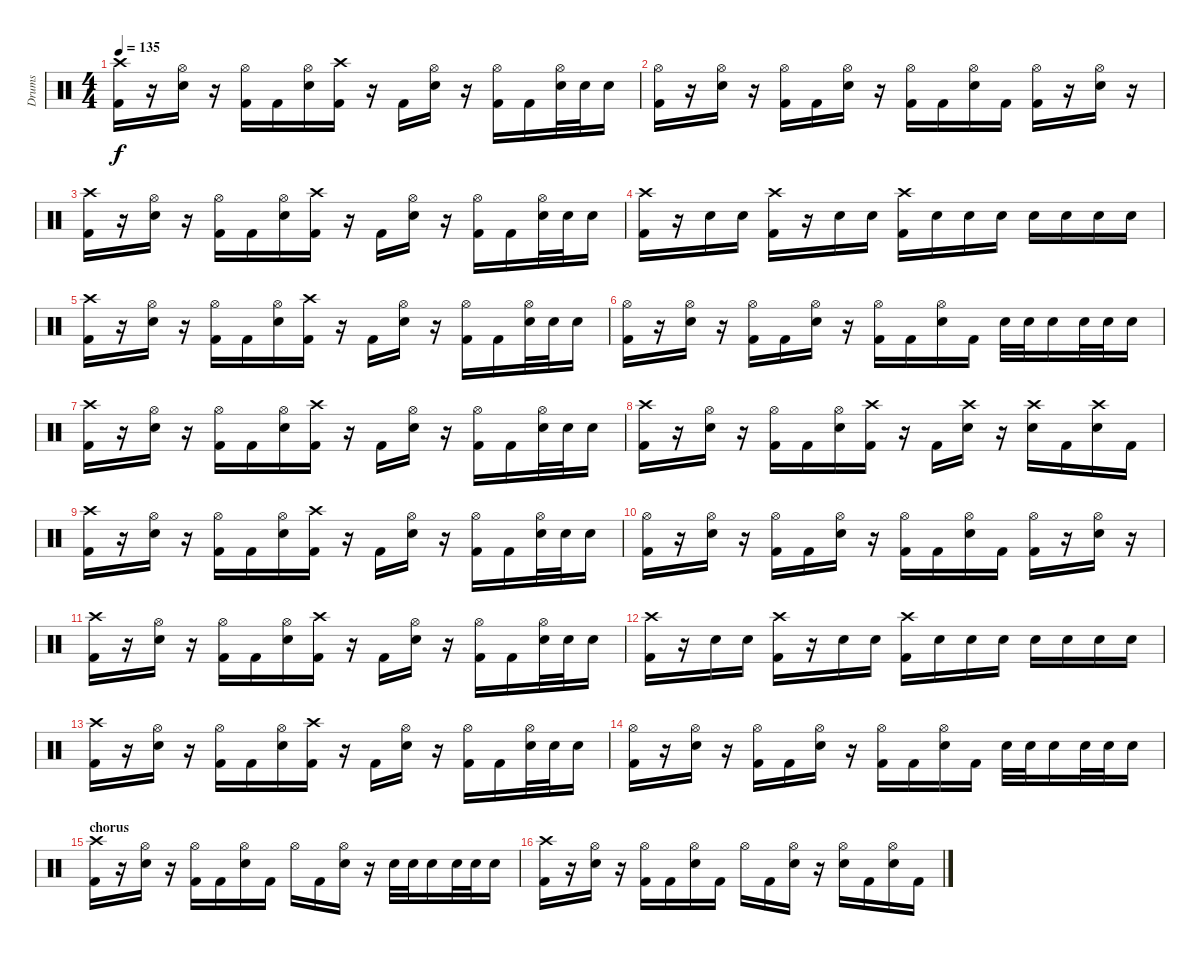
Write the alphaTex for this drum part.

\track ("Drums" "Drums") {instrument percussion}
\staff {score}
\articulation defaults
\ts (4 4)
\tempo 135
\clef neutral
\ks c
("Crash high (hit)" "Kick (hit) 2").16{dy f} r.16 ("Hi-Hat (open)" "Electric Snare (hit)").16 r.16 ("Hi-Hat (open)" "Kick (hit) 2").16 "Kick (hit) 2".16 ("Hi-Hat (open)" "Electric Snare (hit)").16 ("Crash high (hit)" "Kick (hit) 2").16 r.16 "Kick (hit) 2".16 ("Hi-Hat (open)" "Electric Snare (hit)").16 r.16 ("Hi-Hat (open)" "Kick (hit) 2").16 "Kick (hit) 2".16 ("Hi-Hat (open)" "Electric Snare (hit)").32 "Electric Snare (hit)".32 "Electric Snare (hit)".16 |
("Hi-Hat (open)" "Kick (hit) 2").16 r.16 ("Hi-Hat (open)" "Electric Snare (hit)").16 r.16 ("Hi-Hat (open)" "Kick (hit) 2").16 "Kick (hit) 2".16 ("Hi-Hat (open)" "Electric Snare (hit)").16 r.16 ("Hi-Hat (open)" "Kick (hit) 2").16 "Kick (hit) 2".16 ("Hi-Hat (open)" "Electric Snare (hit)").16 "Kick (hit) 2".16 ("Hi-Hat (open)" "Kick (hit) 2").16 r.16 ("Hi-Hat (open)" "Electric Snare (hit)").16 r.16 |
("Crash high (hit)" "Kick (hit) 2").16 r.16 ("Hi-Hat (open)" "Electric Snare (hit)").16 r.16 ("Hi-Hat (open)" "Kick (hit) 2").16 "Kick (hit) 2".16 ("Hi-Hat (open)" "Electric Snare (hit)").16 ("Crash high (hit)" "Kick (hit) 2").16 r.16 "Kick (hit) 2".16 ("Hi-Hat (open)" "Electric Snare (hit)").16 r.16 ("Hi-Hat (open)" "Kick (hit) 2").16 "Kick (hit) 2".16 ("Hi-Hat (open)" "Electric Snare (hit)").32 "Electric Snare (hit)".32 "Electric Snare (hit)".16 |
("Crash high (hit)" "Kick (hit) 2").16 r.16 "Electric Snare (hit)".16 "Electric Snare (hit)".16 ("Crash high (hit)" "Kick (hit) 2").16 r.16 "Electric Snare (hit)".16 "Electric Snare (hit)".16 ("Crash high (hit)" "Kick (hit) 2").16 "Electric Snare (hit)".16 "Electric Snare (hit)".16 "Electric Snare (hit)".16 "Electric Snare (hit)".16 "Electric Snare (hit)".16 "Electric Snare (hit)".16 "Electric Snare (hit)".16 |
("Crash high (hit)" "Kick (hit) 2").16 r.16 ("Hi-Hat (open)" "Electric Snare (hit)").16 r.16 ("Hi-Hat (open)" "Kick (hit) 2").16 "Kick (hit) 2".16 ("Hi-Hat (open)" "Electric Snare (hit)").16 ("Crash high (hit)" "Kick (hit) 2").16 r.16 "Kick (hit) 2".16 ("Hi-Hat (open)" "Electric Snare (hit)").16 r.16 ("Hi-Hat (open)" "Kick (hit) 2").16 "Kick (hit) 2".16 ("Hi-Hat (open)" "Electric Snare (hit)").32 "Electric Snare (hit)".32 "Electric Snare (hit)".16 |
("Hi-Hat (open)" "Kick (hit) 2").16 r.16 ("Hi-Hat (open)" "Electric Snare (hit)").16 r.16 ("Hi-Hat (open)" "Kick (hit) 2").16 "Kick (hit) 2".16 ("Hi-Hat (open)" "Electric Snare (hit)").16 r.16 ("Hi-Hat (open)" "Kick (hit) 2").16 "Kick (hit) 2".16 ("Hi-Hat (open)" "Electric Snare (hit)").16 "Kick (hit) 2".16 "Electric Snare (hit)".32 "Electric Snare (hit)".32 "Electric Snare (hit)".16 "Electric Snare (hit)".32 "Electric Snare (hit)".32 "Electric Snare (hit)".16 |
("Crash high (hit)" "Kick (hit) 2").16 r.16 ("Hi-Hat (open)" "Electric Snare (hit)").16 r.16 ("Hi-Hat (open)" "Kick (hit) 2").16 "Kick (hit) 2".16 ("Hi-Hat (open)" "Electric Snare (hit)").16 ("Crash high (hit)" "Kick (hit) 2").16 r.16 "Kick (hit) 2".16 ("Hi-Hat (open)" "Electric Snare (hit)").16 r.16 ("Hi-Hat (open)" "Kick (hit) 2").16 "Kick (hit) 2".16 ("Hi-Hat (open)" "Electric Snare (hit)").32 "Electric Snare (hit)".32 "Electric Snare (hit)".16 |
("Crash high (hit)" "Kick (hit) 2").16 r.16 ("Hi-Hat (open)" "Electric Snare (hit)").16 r.16 ("Hi-Hat (open)" "Kick (hit) 2").16 "Kick (hit) 2".16 ("Hi-Hat (open)" "Electric Snare (hit)").16 ("Crash high (hit)" "Kick (hit) 2").16 r.16 "Kick (hit) 2".16 ("Crash high (hit)" "Electric Snare (hit)").16 r.16 ("Crash high (hit)" "Electric Snare (hit)").16 "Kick (hit) 2".16 ("Crash high (hit)" "Electric Snare (hit)").16 "Kick (hit) 2".16 |
("Crash high (hit)" "Kick (hit) 2").16 r.16 ("Hi-Hat (open)" "Electric Snare (hit)").16 r.16 ("Hi-Hat (open)" "Kick (hit) 2").16 "Kick (hit) 2".16 ("Hi-Hat (open)" "Electric Snare (hit)").16 ("Crash high (hit)" "Kick (hit) 2").16 r.16 "Kick (hit) 2".16 ("Hi-Hat (open)" "Electric Snare (hit)").16 r.16 ("Hi-Hat (open)" "Kick (hit) 2").16 "Kick (hit) 2".16 ("Hi-Hat (open)" "Electric Snare (hit)").32 "Electric Snare (hit)".32 "Electric Snare (hit)".16 |
("Hi-Hat (open)" "Kick (hit) 2").16 r.16 ("Hi-Hat (open)" "Electric Snare (hit)").16 r.16 ("Hi-Hat (open)" "Kick (hit) 2").16 "Kick (hit) 2".16 ("Hi-Hat (open)" "Electric Snare (hit)").16 r.16 ("Hi-Hat (open)" "Kick (hit) 2").16 "Kick (hit) 2".16 ("Hi-Hat (open)" "Electric Snare (hit)").16 "Kick (hit) 2".16 ("Hi-Hat (open)" "Kick (hit) 2").16 r.16 ("Hi-Hat (open)" "Electric Snare (hit)").16 r.16 |
("Crash high (hit)" "Kick (hit) 2").16 r.16 ("Hi-Hat (open)" "Electric Snare (hit)").16 r.16 ("Hi-Hat (open)" "Kick (hit) 2").16 "Kick (hit) 2".16 ("Hi-Hat (open)" "Electric Snare (hit)").16 ("Crash high (hit)" "Kick (hit) 2").16 r.16 "Kick (hit) 2".16 ("Hi-Hat (open)" "Electric Snare (hit)").16 r.16 ("Hi-Hat (open)" "Kick (hit) 2").16 "Kick (hit) 2".16 ("Hi-Hat (open)" "Electric Snare (hit)").32 "Electric Snare (hit)".32 "Electric Snare (hit)".16 |
("Crash high (hit)" "Kick (hit) 2").16 r.16 "Electric Snare (hit)".16 "Electric Snare (hit)".16 ("Crash high (hit)" "Kick (hit) 2").16 r.16 "Electric Snare (hit)".16 "Electric Snare (hit)".16 ("Crash high (hit)" "Kick (hit) 2").16 "Electric Snare (hit)".16 "Electric Snare (hit)".16 "Electric Snare (hit)".16 "Electric Snare (hit)".16 "Electric Snare (hit)".16 "Electric Snare (hit)".16 "Electric Snare (hit)".16 |
("Crash high (hit)" "Kick (hit) 2").16 r.16 ("Hi-Hat (open)" "Electric Snare (hit)").16 r.16 ("Hi-Hat (open)" "Kick (hit) 2").16 "Kick (hit) 2".16 ("Hi-Hat (open)" "Electric Snare (hit)").16 ("Crash high (hit)" "Kick (hit) 2").16 r.16 "Kick (hit) 2".16 ("Hi-Hat (open)" "Electric Snare (hit)").16 r.16 ("Hi-Hat (open)" "Kick (hit) 2").16 "Kick (hit) 2".16 ("Hi-Hat (open)" "Electric Snare (hit)").32 "Electric Snare (hit)".32 "Electric Snare (hit)".16 |
("Hi-Hat (open)" "Kick (hit) 2").16 r.16 ("Hi-Hat (open)" "Electric Snare (hit)").16 r.16 ("Hi-Hat (open)" "Kick (hit) 2").16 "Kick (hit) 2".16 ("Hi-Hat (open)" "Electric Snare (hit)").16 r.16 ("Hi-Hat (open)" "Kick (hit) 2").16 "Kick (hit) 2".16 ("Hi-Hat (open)" "Electric Snare (hit)").16 "Kick (hit) 2".16 "Electric Snare (hit)".32 "Electric Snare (hit)".32 "Electric Snare (hit)".16 "Electric Snare (hit)".32 "Electric Snare (hit)".32 "Electric Snare (hit)".16 |
\section ("" "chorus")
("Crash high (hit)" "Kick (hit) 2").16 r.16 ("Hi-Hat (open)" "Electric Snare (hit)").16 r.16 ("Hi-Hat (open)" "Kick (hit) 2").16 "Kick (hit) 2".16 ("Hi-Hat (open)" "Electric Snare (hit)").16 "Kick (hit) 2".16 "Hi-Hat (open)".16 "Kick (hit) 2".16 ("Hi-Hat (open)" "Electric Snare (hit)").16 r.16 "Electric Snare (hit)".32 "Electric Snare (hit)".32 "Electric Snare (hit)".16 "Electric Snare (hit)".32 "Electric Snare (hit)".32 "Electric Snare (hit)".16 |
("Crash high (hit)" "Kick (hit) 2").16 r.16 ("Hi-Hat (open)" "Electric Snare (hit)").16 r.16 ("Hi-Hat (open)" "Kick (hit) 2").16 "Kick (hit) 2".16 ("Hi-Hat (open)" "Electric Snare (hit)").16 "Kick (hit) 2".16 "Hi-Hat (open)".16 "Kick (hit) 2".16 ("Hi-Hat (open)" "Electric Snare (hit)").16 r.16 ("Hi-Hat (open)" "Electric Snare (hit)").16 "Kick (hit) 2".16 ("Hi-Hat (open)" "Electric Snare (hit)").16 "Kick (hit) 2".16
